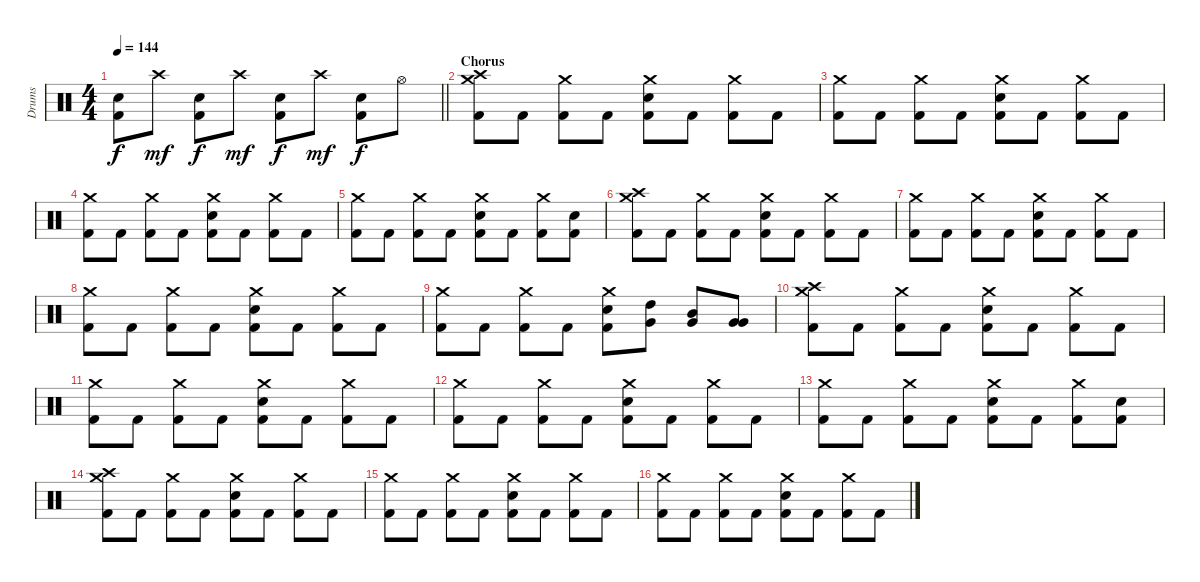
\track ("Drums" "Drums") {instrument percussion}
\staff {score}
\articulation defaults
\ts (4 4)
\tempo 144
\clef neutral
\barLineRight lightlight
\ks c
("Electric Snare (hit)" "Kick (hit) 2").8{dy f} "Crash high (hit)".8{dy mf} ("Electric Snare (hit)" "Kick (hit) 2").8{dy f} "Crash high (hit)".8{dy mf} ("Electric Snare (hit)" "Kick (hit) 2").8{dy f} "Crash high (hit)".8{dy mf} ("Electric Snare (hit)" "Kick (hit) 2").8{dy f} "Hi-Hat (open)".8 |
\section ("" "Chorus")
("Crash high (hit)" "Crash medium (hit)" "Kick (hit) 2").8 "Kick (hit) 2".8 ("Crash medium (hit)" "Kick (hit) 2").8 "Kick (hit) 2".8 ("Crash medium (hit)" "Electric Snare (hit)" "Kick (hit) 2").8 "Kick (hit) 2".8 ("Crash medium (hit)" "Kick (hit) 2").8 "Kick (hit) 2".8 |
("Crash medium (hit)" "Kick (hit) 2").8 "Kick (hit) 2".8 ("Crash medium (hit)" "Kick (hit) 2").8 "Kick (hit) 2".8 ("Crash medium (hit)" "Electric Snare (hit)" "Kick (hit) 2").8 "Kick (hit) 2".8 ("Crash medium (hit)" "Kick (hit) 2").8 "Kick (hit) 2".8 |
("Crash medium (hit)" "Kick (hit) 2").8 "Kick (hit) 2".8 ("Crash medium (hit)" "Kick (hit) 2").8 "Kick (hit) 2".8 ("Crash medium (hit)" "Electric Snare (hit)" "Kick (hit) 2").8 "Kick (hit) 2".8 ("Crash medium (hit)" "Kick (hit) 2").8 "Kick (hit) 2".8 |
("Crash medium (hit)" "Kick (hit) 2").8 "Kick (hit) 2".8 ("Crash medium (hit)" "Kick (hit) 2").8 "Kick (hit) 2".8 ("Crash medium (hit)" "Electric Snare (hit)" "Kick (hit) 2").8 "Kick (hit) 2".8 ("Crash medium (hit)" "Kick (hit) 2").8 ("Electric Snare (hit)" "Kick (hit) 2").8 |
("Crash high (hit)" "Crash medium (hit)" "Kick (hit) 2").8 "Kick (hit) 2".8 ("Crash medium (hit)" "Kick (hit) 2").8 "Kick (hit) 2".8 ("Crash medium (hit)" "Electric Snare (hit)" "Kick (hit) 2").8 "Kick (hit) 2".8 ("Crash medium (hit)" "Kick (hit) 2").8 "Kick (hit) 2".8 |
("Crash medium (hit)" "Kick (hit) 2").8 "Kick (hit) 2".8 ("Crash medium (hit)" "Kick (hit) 2").8 "Kick (hit) 2".8 ("Crash medium (hit)" "Electric Snare (hit)" "Kick (hit) 2").8 "Kick (hit) 2".8 ("Crash medium (hit)" "Kick (hit) 2").8 "Kick (hit) 2".8 |
("Crash medium (hit)" "Kick (hit) 2").8 "Kick (hit) 2".8 ("Crash medium (hit)" "Kick (hit) 2").8 "Kick (hit) 2".8 ("Crash medium (hit)" "Electric Snare (hit)" "Kick (hit) 2").8 "Kick (hit) 2".8 ("Crash medium (hit)" "Kick (hit) 2").8 "Kick (hit) 2".8 |
("Crash medium (hit)" "Kick (hit) 2").8 "Kick (hit) 2".8 ("Crash medium (hit)" "Kick (hit) 2").8 "Kick (hit) 2".8 ("Crash medium (hit)" "Electric Snare (hit)" "Kick (hit) 2").8 ("High Tom (hit)" "Very Low Tom (hit)").8 ("Mid Tom (hit)" "Very Low Tom (hit)").8 ("Very Low Tom (hit)" "Very Low Tom (hit)").8 |
("Crash high (hit)" "Crash medium (hit)" "Kick (hit) 2").8 "Kick (hit) 2".8 ("Crash medium (hit)" "Kick (hit) 2").8 "Kick (hit) 2".8 ("Crash medium (hit)" "Electric Snare (hit)" "Kick (hit) 2").8 "Kick (hit) 2".8 ("Crash medium (hit)" "Kick (hit) 2").8 "Kick (hit) 2".8 |
("Crash medium (hit)" "Kick (hit) 2").8 "Kick (hit) 2".8 ("Crash medium (hit)" "Kick (hit) 2").8 "Kick (hit) 2".8 ("Crash medium (hit)" "Electric Snare (hit)" "Kick (hit) 2").8 "Kick (hit) 2".8 ("Crash medium (hit)" "Kick (hit) 2").8 "Kick (hit) 2".8 |
("Crash medium (hit)" "Kick (hit) 2").8 "Kick (hit) 2".8 ("Crash medium (hit)" "Kick (hit) 2").8 "Kick (hit) 2".8 ("Crash medium (hit)" "Electric Snare (hit)" "Kick (hit) 2").8 "Kick (hit) 2".8 ("Crash medium (hit)" "Kick (hit) 2").8 "Kick (hit) 2".8 |
("Crash medium (hit)" "Kick (hit) 2").8 "Kick (hit) 2".8 ("Crash medium (hit)" "Kick (hit) 2").8 "Kick (hit) 2".8 ("Crash medium (hit)" "Electric Snare (hit)" "Kick (hit) 2").8 "Kick (hit) 2".8 ("Crash medium (hit)" "Kick (hit) 2").8 ("Electric Snare (hit)" "Kick (hit) 2").8 |
("Crash high (hit)" "Crash medium (hit)" "Kick (hit) 2").8 "Kick (hit) 2".8 ("Crash medium (hit)" "Kick (hit) 2").8 "Kick (hit) 2".8 ("Crash medium (hit)" "Electric Snare (hit)" "Kick (hit) 2").8 "Kick (hit) 2".8 ("Crash medium (hit)" "Kick (hit) 2").8 "Kick (hit) 2".8 |
("Crash medium (hit)" "Kick (hit) 2").8 "Kick (hit) 2".8 ("Crash medium (hit)" "Kick (hit) 2").8 "Kick (hit) 2".8 ("Crash medium (hit)" "Electric Snare (hit)" "Kick (hit) 2").8 "Kick (hit) 2".8 ("Crash medium (hit)" "Kick (hit) 2").8 "Kick (hit) 2".8 |
("Crash medium (hit)" "Kick (hit) 2").8 "Kick (hit) 2".8 ("Crash medium (hit)" "Kick (hit) 2").8 "Kick (hit) 2".8 ("Crash medium (hit)" "Electric Snare (hit)" "Kick (hit) 2").8 "Kick (hit) 2".8 ("Crash medium (hit)" "Kick (hit) 2").8 "Kick (hit) 2".8
